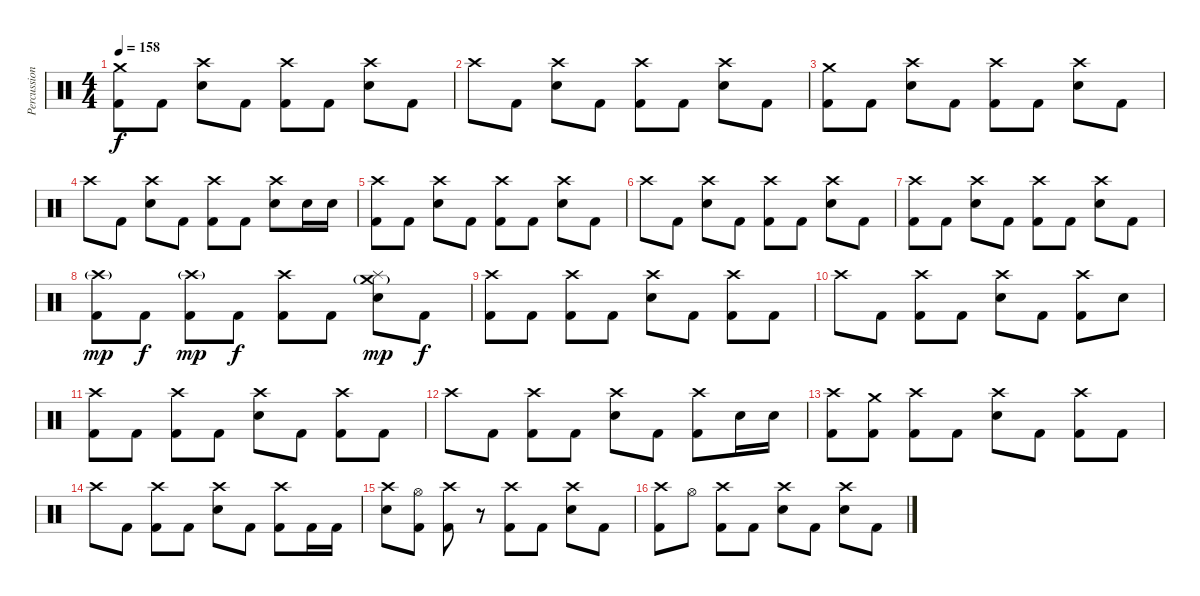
\track ("Percussion" "Percussion") {instrument percussion}
\staff {score}
\articulation defaults
\ts (4 4)
\tempo 158
\clef neutral
\ks c
("Crash medium (hit)" "Kick (hit) 2").8{dy f} "Kick (hit) 2".8 ("Crash high (hit)" "Snare (hit) 2").8 "Kick (hit) 2".8 ("Crash high (hit)" "Kick (hit) 2").8 "Kick (hit) 2".8 ("Crash high (hit)" "Snare (hit) 2").8 "Kick (hit) 2".8 |
"Crash high (hit)".8 "Kick (hit) 2".8 ("Crash high (hit)" "Snare (hit) 2").8 "Kick (hit) 2".8 ("Crash high (hit)" "Kick (hit) 2").8 "Kick (hit) 2".8 ("Crash high (hit)" "Snare (hit) 2").8 "Kick (hit) 2".8 |
("Crash medium (hit)" "Kick (hit) 2").8 "Kick (hit) 2".8 ("Crash high (hit)" "Snare (hit) 2").8 "Kick (hit) 2".8 ("Crash high (hit)" "Kick (hit) 2").8 "Kick (hit) 2".8 ("Crash high (hit)" "Snare (hit) 2").8 "Kick (hit) 2".8 |
"Crash high (hit)".8 "Kick (hit) 2".8 ("Crash high (hit)" "Snare (hit) 2").8 "Kick (hit) 2".8 ("Crash high (hit)" "Kick (hit) 2").8 "Kick (hit) 2".8 ("Crash high (hit)" "Snare (hit) 2").8 "Snare (hit) 2".16 "Snare (hit) 2".16 |
("Crash high (hit)" "Kick (hit) 2").8 "Kick (hit) 2".8 ("Crash high (hit)" "Snare (hit) 2").8 "Kick (hit) 2".8 ("Crash high (hit)" "Kick (hit) 2").8 "Kick (hit) 2".8 ("Crash high (hit)" "Snare (hit) 2").8 "Kick (hit) 2".8 |
"Crash high (hit)".8 "Kick (hit) 2".8 ("Crash high (hit)" "Snare (hit) 2").8 "Kick (hit) 2".8 ("Crash high (hit)" "Kick (hit) 2").8 "Kick (hit) 2".8 ("Crash high (hit)" "Snare (hit) 2").8 "Kick (hit) 2".8 |
("Crash high (hit)" "Kick (hit) 2").8 "Kick (hit) 2".8 ("Crash high (hit)" "Snare (hit) 2").8 "Kick (hit) 2".8 ("Crash high (hit)" "Kick (hit) 2").8 "Kick (hit) 2".8 ("Crash high (hit)" "Snare (hit) 2").8 "Kick (hit) 2".8 |
("Crash high (hit)"{g} "Kick (hit) 2").8{dy mp} "Kick (hit) 2".8{dy f} ("Crash high (hit)"{g} "Kick (hit) 2").8{dy mp} "Kick (hit) 2".8{dy f} ("Crash high (hit)" "Kick (hit) 2").8 "Kick (hit) 2".8 ("Crash medium (hit)"{g} "Splash (hit)" "Snare (hit) 2").8{dy mp} "Kick (hit) 2".8{dy f} |
("Crash high (hit)" "Kick (hit) 2").8 "Kick (hit) 2".8 ("Crash high (hit)" "Kick (hit) 2").8 "Kick (hit) 2".8 ("Crash high (hit)" "Snare (hit) 2").8 "Kick (hit) 2".8 ("Crash high (hit)" "Kick (hit) 2").8 "Kick (hit) 2".8 |
"Crash high (hit)".8 "Kick (hit) 2".8 ("Crash high (hit)" "Kick (hit) 2").8 "Kick (hit) 2".8 ("Crash high (hit)" "Snare (hit) 2").8 "Kick (hit) 2".8 ("Crash high (hit)" "Kick (hit) 2").8 "Snare (hit) 2".8 |
("Crash high (hit)" "Kick (hit) 2").8 "Kick (hit) 2".8 ("Crash high (hit)" "Kick (hit) 2").8 "Kick (hit) 2".8 ("Crash high (hit)" "Snare (hit) 2").8 "Kick (hit) 2".8 ("Crash high (hit)" "Kick (hit) 2").8 "Kick (hit) 2".8 |
"Crash high (hit)".8 "Kick (hit) 2".8 ("Crash high (hit)" "Kick (hit) 2").8 "Kick (hit) 2".8 ("Crash high (hit)" "Snare (hit) 2").8 "Kick (hit) 2".8 ("Crash high (hit)" "Kick (hit) 2").8 "Snare (hit) 2".16 "Snare (hit) 2".16 |
("Crash high (hit)" "Kick (hit) 2").8 ("Crash medium (hit)" "Kick (hit) 2").8 ("Crash high (hit)" "Kick (hit) 2").8 "Kick (hit) 2".8 ("Crash high (hit)" "Snare (hit) 2").8 "Kick (hit) 2".8 ("Crash high (hit)" "Kick (hit) 2").8 "Kick (hit) 2".8 |
"Crash high (hit)".8 "Kick (hit) 2".8 ("Crash high (hit)" "Kick (hit) 2").8 "Kick (hit) 2".8 ("Crash high (hit)" "Snare (hit) 2").8 "Kick (hit) 2".8 ("Crash high (hit)" "Kick (hit) 2").8 "Kick (hit) 2".16 "Kick (hit) 2".16 |
("Crash high (hit)" "Snare (hit) 2").8 ("Hi-Hat (open)" "Kick (hit) 2").8 ("Crash high (hit)" "Kick (hit) 2").8 r.8 ("Crash high (hit)" "Kick (hit) 2").8 "Kick (hit) 2".8 ("Crash high (hit)" "Snare (hit) 2").8 "Kick (hit) 2".8 |
("Crash high (hit)" "Kick (hit) 2").8 "Hi-Hat (open)".8 ("Crash high (hit)" "Kick (hit) 2").8 "Kick (hit) 2".8 ("Crash high (hit)" "Snare (hit) 2").8 "Kick (hit) 2".8 ("Crash high (hit)" "Snare (hit) 2").8 "Kick (hit) 2".8
